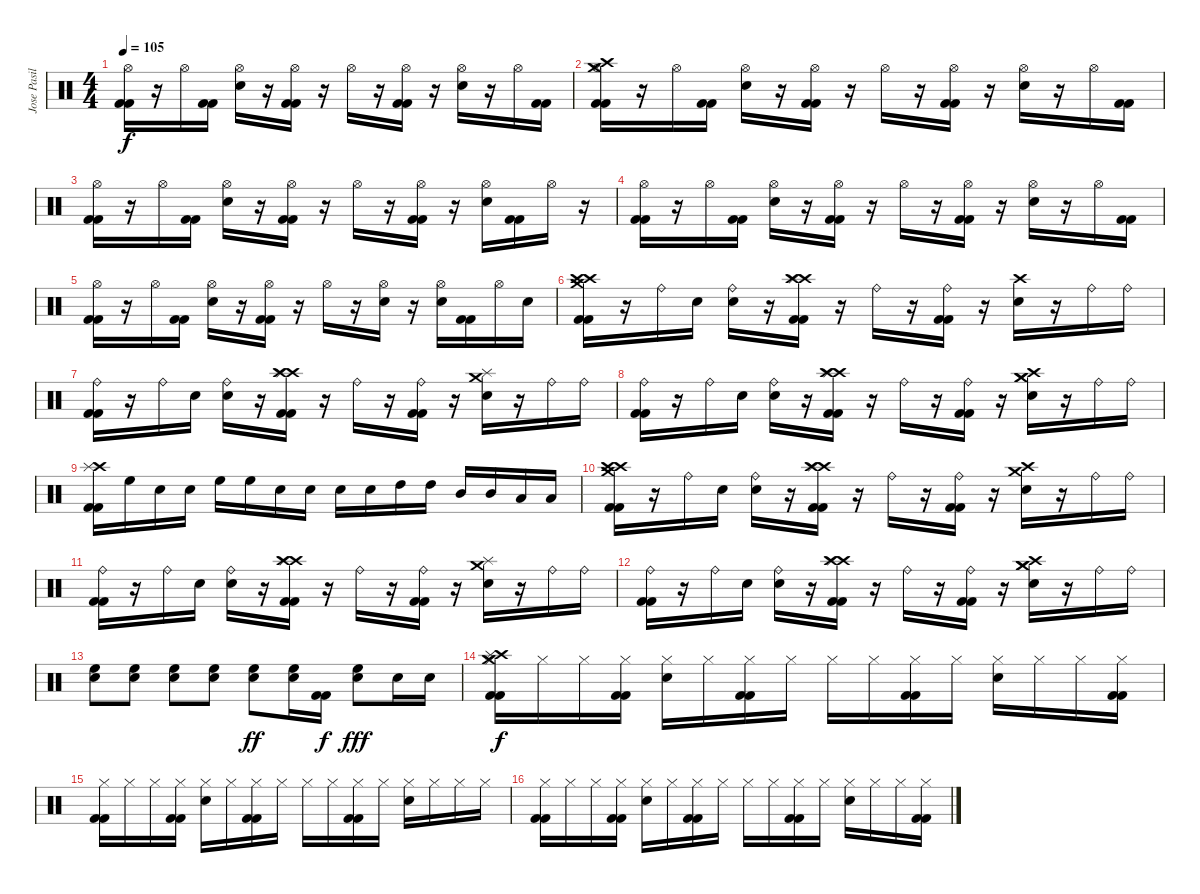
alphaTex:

\track ("Jose Pasillas" "Jose Pasil") {instrument percussion}
\staff {score}
\articulation defaults
\ts (4 4)
\tempo 105
\clef neutral
\ks c
("Hi-Hat (open)" "Kick (hit) 2" "Kick (hit) 2").16{dy f} r.16 "Hi-Hat (open)".16 ("Kick (hit) 2" "Kick (hit) 2").16 ("Hi-Hat (open)" "Electric Snare (hit)").16 r.16 ("Hi-Hat (open)" "Kick (hit) 2" "Kick (hit) 2").16 r.16 "Hi-Hat (open)".16 r.16 ("Hi-Hat (open)" "Kick (hit) 2" "Kick (hit) 2").16 r.16 ("Hi-Hat (open)" "Electric Snare (hit)").16 r.16 "Hi-Hat (open)".16 ("Kick (hit) 2" "Kick (hit) 2").16 |
("Hi-Hat (open)" "Crash high (hit)" "Crash medium (hit)" "Kick (hit) 2" "Kick (hit) 2").16 r.16 "Hi-Hat (open)".16 ("Kick (hit) 2" "Kick (hit) 2").16 ("Hi-Hat (open)" "Electric Snare (hit)").16 r.16 ("Hi-Hat (open)" "Kick (hit) 2" "Kick (hit) 2").16 r.16 "Hi-Hat (open)".16 r.16 ("Hi-Hat (open)" "Kick (hit) 2" "Kick (hit) 2").16 r.16 ("Hi-Hat (open)" "Electric Snare (hit)").16 r.16 "Hi-Hat (open)".16 ("Kick (hit) 2" "Kick (hit) 2").16 |
("Hi-Hat (open)" "Kick (hit) 2" "Kick (hit) 2").16 r.16 "Hi-Hat (open)".16 ("Kick (hit) 2" "Kick (hit) 2").16 ("Hi-Hat (open)" "Electric Snare (hit)").16 r.16 ("Hi-Hat (open)" "Kick (hit) 2" "Kick (hit) 2").16 r.16 "Hi-Hat (open)".16 r.16 ("Hi-Hat (open)" "Kick (hit) 2" "Kick (hit) 2").16 r.16 ("Hi-Hat (open)" "Electric Snare (hit)").16 ("Kick (hit) 2" "Kick (hit) 2").16 "Hi-Hat (open)".16 r.16 |
("Hi-Hat (open)" "Kick (hit) 2" "Kick (hit) 2").16 r.16 "Hi-Hat (open)".16 ("Kick (hit) 2" "Kick (hit) 2").16 ("Hi-Hat (open)" "Electric Snare (hit)").16 r.16 ("Hi-Hat (open)" "Kick (hit) 2" "Kick (hit) 2").16 r.16 "Hi-Hat (open)".16 r.16 ("Hi-Hat (open)" "Kick (hit) 2" "Kick (hit) 2").16 r.16 ("Hi-Hat (open)" "Electric Snare (hit)").16 r.16 "Hi-Hat (open)".16 ("Kick (hit) 2" "Kick (hit) 2").16 |
("Hi-Hat (open)" "Kick (hit) 2" "Kick (hit) 2").16 r.16 "Hi-Hat (open)".16 ("Kick (hit) 2" "Kick (hit) 2").16 ("Hi-Hat (open)" "Electric Snare (hit)").16 r.16 ("Hi-Hat (open)" "Kick (hit) 2" "Kick (hit) 2").16 r.16 "Hi-Hat (open)".16 r.16 ("Hi-Hat (open)" "Electric Snare (hit)").16 r.16 ("Hi-Hat (open)" "Electric Snare (hit)").16 ("Kick (hit) 2" "Kick (hit) 2").16 "Hi-Hat (open)".16 "Electric Snare (hit)".16 |
("Crash high (hit)" "Crash high (hit)" "Crash medium (hit)" "Kick (hit) 2" "Kick (hit) 2").16 r.16 "Ride (bell)".16 "Electric Snare (hit)".16 ("Ride (bell)" "Electric Snare (hit)").16 r.16 ("Crash high (hit)" "Crash high (hit)" "Splash (hit)" "Kick (hit) 2" "Kick (hit) 2").16 r.16 "Ride (bell)".16 r.16 ("Ride (bell)" "Kick (hit) 2" "Kick (hit) 2").16 r.16 ("Crash high (hit)" "Electric Snare (hit)").16 r.16 "Ride (bell)".16 "Ride (bell)".16 |
("Ride (bell)" "Kick (hit) 2" "Kick (hit) 2").16 r.16 "Ride (bell)".16 "Electric Snare (hit)".16 ("Ride (bell)" "Electric Snare (hit)").16 r.16 ("Crash high (hit)" "Crash high (hit)" "Splash (hit)" "Kick (hit) 2" "Kick (hit) 2").16 r.16 "Ride (bell)".16 r.16 ("Ride (bell)" "Kick (hit) 2" "Kick (hit) 2").16 r.16 ("Crash medium (hit)" "Splash (hit)" "Electric Snare (hit)").16 r.16 "Ride (bell)".16 "Ride (bell)".16 |
("Ride (bell)" "Kick (hit) 2" "Kick (hit) 2").16 r.16 "Ride (bell)".16 "Electric Snare (hit)".16 ("Ride (bell)" "Electric Snare (hit)").16 r.16 ("Crash high (hit)" "Crash high (hit)" "Splash (hit)" "Kick (hit) 2" "Kick (hit) 2").16 r.16 "Ride (bell)".16 r.16 ("Ride (bell)" "Kick (hit) 2" "Kick (hit) 2").16 r.16 ("Crash high (hit)" "Crash medium (hit)" "Crash medium (hit)" "Electric Snare (hit)").16 r.16 "Ride (bell)".16 "Ride (bell)".16 |
("Crash high (hit)" "Splash (hit)" "Kick (hit) 2" "Kick (hit) 2").16 "High Floor Tom (hit)".16 "Electric Snare (hit)".16 "Electric Snare (hit)".16 "High Floor Tom (hit)".16 "High Floor Tom (hit)".16 "Electric Snare (hit)".16 "Electric Snare (hit)".16 "Electric Snare (hit)".16 "Electric Snare (hit)".16 "High Tom (hit)".16 "High Tom (hit)".16 "Mid Tom (hit)".16 "Mid Tom (hit)".16 "Low Tom (hit)".16 "Low Tom (hit)".16 |
("Crash high (hit)" "Crash high (hit)" "Crash medium (hit)" "Kick (hit) 2" "Kick (hit) 2").16 r.16 "Ride (bell)".16 "Electric Snare (hit)".16 ("Ride (bell)" "Electric Snare (hit)").16 r.16 ("Crash high (hit)" "Crash high (hit)" "Splash (hit)" "Kick (hit) 2" "Kick (hit) 2").16 r.16 "Ride (bell)".16 r.16 ("Ride (bell)" "Kick (hit) 2" "Kick (hit) 2").16 r.16 ("Crash high (hit)" "Crash medium (hit)" "Electric Snare (hit)").16 r.16 "Ride (bell)".16 "Ride (bell)".16 |
("Ride (bell)" "Kick (hit) 2" "Kick (hit) 2").16 r.16 "Ride (bell)".16 "Electric Snare (hit)".16 ("Ride (bell)" "Electric Snare (hit)").16 r.16 ("Crash high (hit)" "Crash high (hit)" "Splash (hit)" "Kick (hit) 2" "Kick (hit) 2").16 r.16 "Ride (bell)".16 r.16 ("Ride (bell)" "Kick (hit) 2" "Kick (hit) 2").16 r.16 ("Crash medium (hit)" "Splash (hit)" "Electric Snare (hit)").16 r.16 "Ride (bell)".16 "Ride (bell)".16 |
("Ride (bell)" "Kick (hit) 2" "Kick (hit) 2").16 r.16 "Ride (bell)".16 "Electric Snare (hit)".16 ("Ride (bell)" "Electric Snare (hit)").16 r.16 ("Crash high (hit)" "Crash high (hit)" "Splash (hit)" "Kick (hit) 2" "Kick (hit) 2").16 r.16 "Ride (bell)".16 r.16 ("Ride (bell)" "Kick (hit) 2" "Kick (hit) 2").16 r.16 ("Crash high (hit)" "Crash medium (hit)" "Crash medium (hit)" "Electric Snare (hit)").16 r.16 "Ride (bell)".16 "Ride (bell)".16 |
("High Floor Tom (hit)" "Electric Snare (hit)").8 ("High Floor Tom (hit)" "Electric Snare (hit)").8 ("High Floor Tom (hit)" "Electric Snare (hit)").8 ("High Floor Tom (hit)" "Electric Snare (hit)").8 ("High Floor Tom (hit)" "Electric Snare (hit)").8{dy ff} ("High Floor Tom (hit)" "Electric Snare (hit)").16 ("Kick (hit) 2" "Kick (hit) 2").16{dy f} ("High Floor Tom (hit)" "Electric Snare (hit)").8{dy fff} "Electric Snare (hit)".16 "Electric Snare (hit)".16 |
("Hi-Hat (closed)" "Crash medium (hit)" "Crash high (hit)" "Splash (hit)" "Kick (hit) 2" "Kick (hit) 2").16{dy f} "Hi-Hat (closed)".16 "Hi-Hat (closed)".16 ("Hi-Hat (closed)" "Kick (hit) 2" "Kick (hit) 2").16 ("Hi-Hat (closed)" "Electric Snare (hit)").16 "Hi-Hat (closed)".16 ("Hi-Hat (closed)" "Kick (hit) 2" "Kick (hit) 2").16 "Hi-Hat (closed)".16 "Hi-Hat (closed)".16 "Hi-Hat (closed)".16 ("Hi-Hat (closed)" "Kick (hit) 2" "Kick (hit) 2").16 "Hi-Hat (closed)".16 ("Hi-Hat (closed)" "Electric Snare (hit)").16 "Hi-Hat (closed)".16 "Hi-Hat (closed)".16 ("Hi-Hat (closed)" "Kick (hit) 2" "Kick (hit) 2").16 |
("Hi-Hat (closed)" "Kick (hit) 2" "Kick (hit) 2").16 "Hi-Hat (closed)".16 "Hi-Hat (closed)".16 ("Hi-Hat (closed)" "Kick (hit) 2" "Kick (hit) 2").16 ("Hi-Hat (closed)" "Electric Snare (hit)").16 "Hi-Hat (closed)".16 ("Hi-Hat (closed)" "Kick (hit) 2" "Kick (hit) 2").16 "Hi-Hat (closed)".16 "Hi-Hat (closed)".16 "Hi-Hat (closed)".16 ("Hi-Hat (closed)" "Kick (hit) 2" "Kick (hit) 2").16 "Hi-Hat (closed)".16 ("Hi-Hat (closed)" "Electric Snare (hit)").16 "Hi-Hat (closed)".16 "Hi-Hat (closed)".16 "Hi-Hat (closed)".16 |
("Hi-Hat (closed)" "Kick (hit) 2" "Kick (hit) 2").16 "Hi-Hat (closed)".16 "Hi-Hat (closed)".16 ("Hi-Hat (closed)" "Kick (hit) 2" "Kick (hit) 2").16 ("Hi-Hat (closed)" "Electric Snare (hit)").16 "Hi-Hat (closed)".16 ("Hi-Hat (closed)" "Kick (hit) 2" "Kick (hit) 2").16 "Hi-Hat (closed)".16 "Hi-Hat (closed)".16 "Hi-Hat (closed)".16 ("Hi-Hat (closed)" "Kick (hit) 2" "Kick (hit) 2").16 "Hi-Hat (closed)".16 ("Hi-Hat (closed)" "Electric Snare (hit)").16 "Hi-Hat (closed)".16 "Hi-Hat (closed)".16 ("Hi-Hat (closed)" "Kick (hit) 2" "Kick (hit) 2").16
